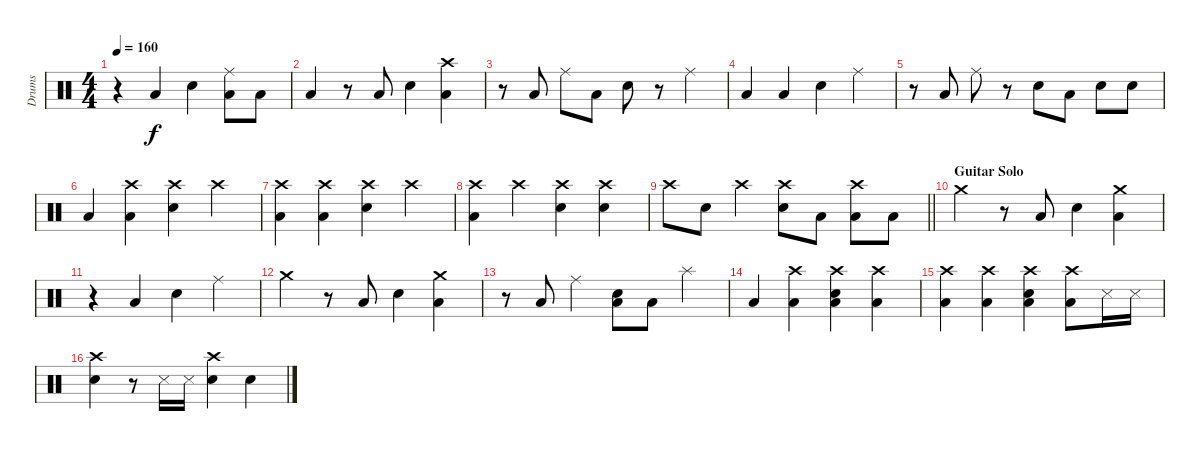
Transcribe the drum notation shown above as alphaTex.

\track ("Drums" "Drums") {instrument percussion}
\staff {score}
\articulation defaults
\ts (4 4)
\tempo 160
\clef neutral
\ks c
r.4{dy f} "Low Floor Tom (hit)".4 "Snare (hit) 2".4 ("Low Floor Tom (hit)" "Ride (middle)").8 "Low Floor Tom (hit)".8 |
"Low Floor Tom (hit)".4 r.8 "Low Floor Tom (hit)".8 "Snare (hit) 2".4 ("Low Floor Tom (hit)" "Crash high (hit)").4 |
r.8 "Low Tom (hit)".8 "Ride (middle)".8 "Low Floor Tom (hit)".8 "Snare (hit) 2".8 r.8 "Ride (middle)".4 |
"Low Floor Tom (hit)".4 "Low Floor Tom (hit)".4 "Snare (hit) 2".4 "Ride (middle)".4 |
r.8 "Low Tom (hit)".8 "Ride (middle)".8 r.8 "Snare (hit) 2".8 "Low Floor Tom (hit)".8 "Snare (hit) 2".8 "Snare (hit) 2".8 |
"Low Floor Tom (hit)".4 ("Low Floor Tom (hit)" "Crash high (hit)").4 ("Crash high (hit)" "Snare (hit) 2").4 "Crash high (hit)".4 |
("Low Floor Tom (hit)" "Crash high (hit)").4 ("Low Floor Tom (hit)" "Crash high (hit)").4 ("Crash high (hit)" "Snare (hit) 2").4 "Crash high (hit)".4 |
("Low Floor Tom (hit)" "Crash high (hit)").4 "Crash high (hit)".4 ("Crash high (hit)" "Snare (hit) 2").4 ("Crash high (hit)" "Snare (hit) 2").4 |
\barLineRight lightlight "Crash high (hit)".8 "Snare (hit) 2".8 "Crash high (hit)".4
("Crash high (hit)" "Snare (hit) 2").8 "Low Floor Tom (hit)".8 ("Low Floor Tom (hit)" "Crash high (hit)").8 "Low Floor Tom (hit)".8 |
\section ("" "Guitar Solo")
"Crash medium (hit)".4 r.8 "Low Floor Tom (hit)".8 "Snare (hit) 2".4 ("Low Floor Tom (hit)" "Crash medium (hit)").4 |
r.4 "Low Floor Tom (hit)".4 "Snare (hit) 2".4 "Ride (middle)".4 |
"Crash medium (hit)".4 r.8 "Low Floor Tom (hit)".8 "Snare (hit) 2".4 ("Low Floor Tom (hit)" "Crash medium (hit)").4 |
r.8 "Low Tom (hit)".8 "Ride (middle)".4 ("Low Floor Tom (hit)" "Snare (hit) 2").8 "Low Floor Tom (hit)".8 "Splash (hit)".4 |
"Low Floor Tom (hit)".4 ("Low Floor Tom (hit)" "Crash high (hit)").4 ("Low Floor Tom (hit)" "Crash high (hit)" "Snare (hit) 2").4 ("Low Floor Tom (hit)" "Crash high (hit)").4 |
("Low Floor Tom (hit)" "Crash high (hit)").4 ("Low Floor Tom (hit)" "Crash high (hit)").4 ("Low Floor Tom (hit)" "Crash high (hit)" "Snare (hit) 2").4 ("Low Floor Tom (hit)" "Crash high (hit)").8 "Snare (side stick) 3".16 "Snare (side stick) 3".16 |
("Crash high (hit)" "Snare (hit) 2").4 r.8 "Snare (side stick) 3".16 "Snare (side stick) 3".16 ("Crash high (hit)" "Snare (hit) 2").4 "Snare (hit) 2".4
